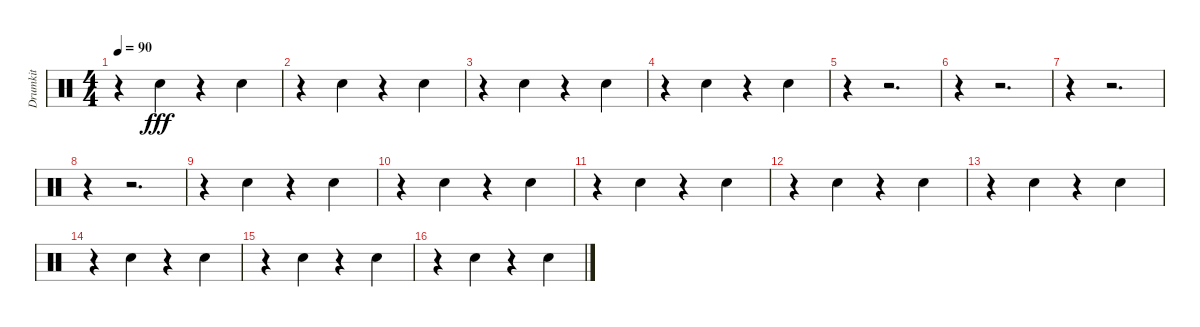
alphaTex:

\track ("Drumkit" "Drumkit") {instrument percussion}
\staff {score}
\articulation defaults
\ts (4 4)
\tempo 90
\clef neutral
\ks c
r.4{dy fff} "Snare (hit) 2".4 r.4 "Snare (hit) 2".4 |
r.4 "Snare (hit) 2".4 r.4 "Snare (hit) 2".4 |
r.4 "Snare (hit) 2".4 r.4 "Snare (hit) 2".4 |
r.4 "Snare (hit) 2".4 r.4 "Snare (hit) 2".4 |
r.4 r.2{d} |
r.4 r.2{d} |
r.4 r.2{d} |
r.4 r.2{d} |
r.4 "Snare (hit) 2".4 r.4 "Snare (hit) 2".4 |
r.4 "Snare (hit) 2".4 r.4 "Snare (hit) 2".4 |
r.4 "Snare (hit) 2".4 r.4 "Snare (hit) 2".4 |
r.4 "Snare (hit) 2".4 r.4 "Snare (hit) 2".4 |
r.4 "Snare (hit) 2".4 r.4 "Snare (hit) 2".4 |
r.4 "Snare (hit) 2".4 r.4 "Snare (hit) 2".4 |
r.4 "Snare (hit) 2".4 r.4 "Snare (hit) 2".4 |
r.4 "Snare (hit) 2".4 r.4 "Snare (hit) 2".4
